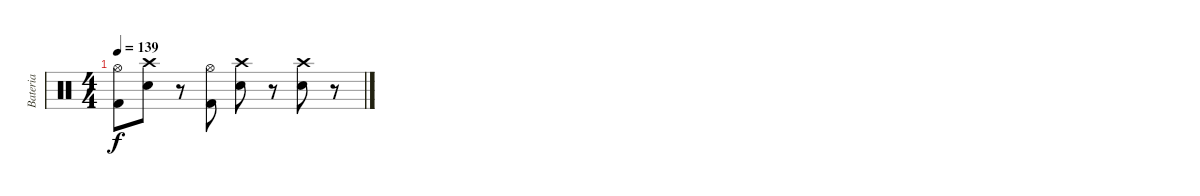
\track ("Bateria" "Bateria") {instrument percussion}
\staff {score}
\articulation defaults
\ts (4 4)
\tempo 139
\clef neutral
\ks c
("Hi-Hat (open)" "Kick (hit) 2").8{dy f} ("Crash high (hit)" "Electric Snare (hit)").8 r.8 ("Hi-Hat (open)" "Kick (hit) 2").8 ("Crash high (hit)" "Electric Snare (hit)").8 r.8 ("Crash high (hit)" "Electric Snare (hit)").8 r.8
